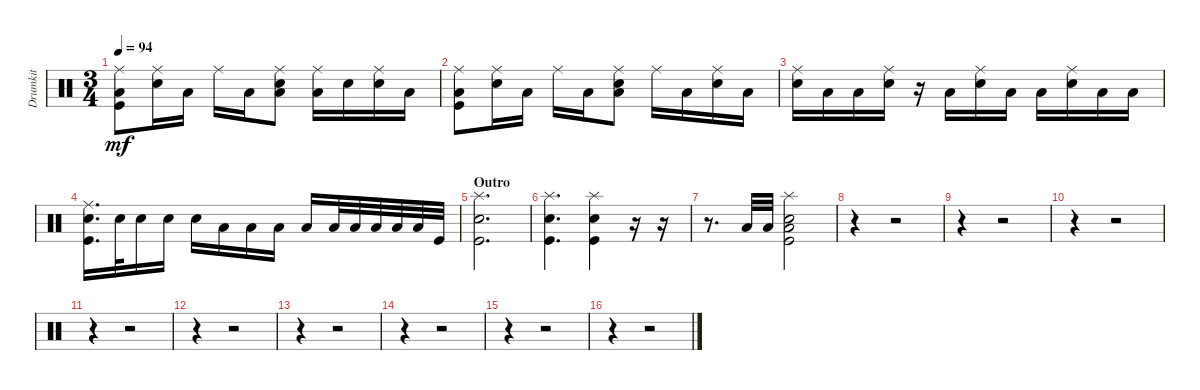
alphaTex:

\track ("Drumkit" "Drumkit") {instrument percussion}
\staff {score}
\articulation defaults
\ts (3 4)
\tempo 94
\clef neutral
\ks c
("Ride (middle)" "Kick (hit)" "Low Tom (hit)").8{dy mf} ("Ride (middle)" "Snare (hit) 2").16 "Low Tom (hit)".16 "Ride (middle)".16 "Low Tom (hit)".16 ("Ride (middle)" "Snare (hit) 2" "Low Floor Tom (hit)").8 ("Ride (middle)" "Low Tom (hit)").16 "Snare (hit) 2".16 ("Ride (middle)" "Snare (hit) 2").16 "Low Tom (hit)".16 |
("Ride (middle)" "Kick (hit)" "Low Tom (hit)").8 ("Ride (middle)" "Snare (hit) 2").16 "Low Tom (hit)".16 "Ride (middle)".16 "Low Tom (hit)".16 ("Ride (middle)" "Snare (hit) 2" "Low Floor Tom (hit)").8 "Ride (middle)".16 "Low Tom (hit)".16 ("Ride (middle)" "Snare (hit) 2").16 "Low Tom (hit)".16 |
("Snare (hit) 2" "Ride (middle)").16 "Low Tom (hit)".16 "Low Tom (hit)".16 ("Snare (hit) 2" "Ride (middle)").16 r.16 "Low Tom (hit)".16 ("Snare (hit) 2" "Ride (middle)").16 "Low Tom (hit)".16 "Low Tom (hit)".16 ("Snare (hit) 2" "Ride (middle)").16 "Low Tom (hit)".16 "Low Tom (hit)".16 |
("Kick (hit)" "Snare (hit) 2" "Ride (middle)").16{d} "Snare (hit) 2".32 "Snare (hit) 2".16 "Snare (hit) 2".16 "Snare (hit) 2".16 "Low Tom (hit)".16 "Low Tom (hit)".16 "Low Tom (hit)".16 "Low Floor Tom (hit)".16 "Low Floor Tom (hit)".32 "Low Floor Tom (hit)".32 "Low Tom (hit)".32 "Low Floor Tom (hit)".32 "Low Floor Tom (hit)".32 "Kick (hit)".32 |
\section ("" "Outro")
("Kick (hit)" "Snare (hit) 2" "Splash (hit)").2{d} |
("Kick (hit)" "Snare (hit) 2" "Splash (hit)").4{d} ("Kick (hit)" "Snare (hit) 2" "Splash (hit)").4 r.16 r.16 |
r.8{d} "Low Tom (hit)".32 "Low Tom (hit)".32 ("Kick (hit)" "Snare (hit) 2" "Splash (hit)" "Low Tom (hit)").2 |
r.4 r.2 |
r.4 r.2 |
r.4 r.2 |
r.4 r.2 |
r.4 r.2 |
r.4 r.2 |
r.4 r.2 |
r.4 r.2 |
r.4 r.2
